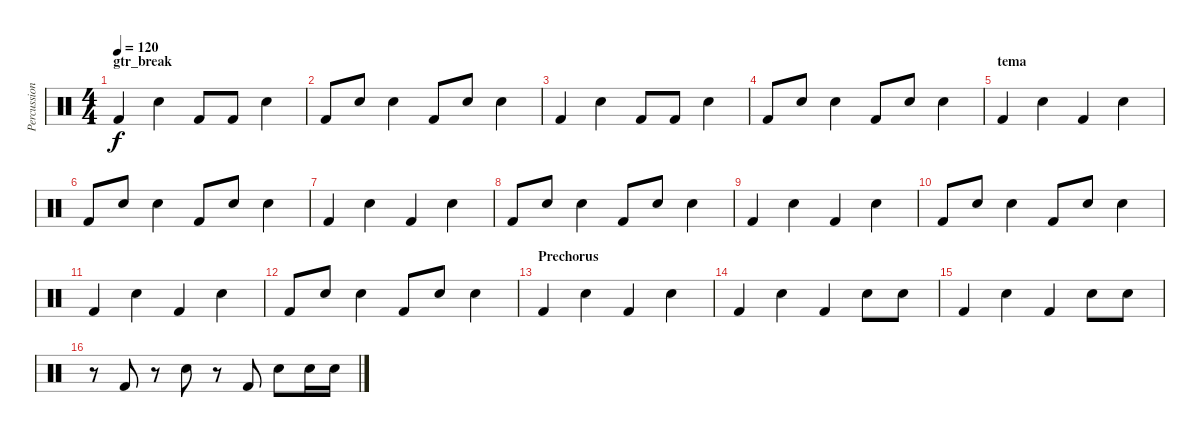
\track ("Percussion" "Percussion") {instrument percussion}
\staff {score}
\articulation defaults
\ts (4 4)
\section ("" "gtr_break")
\tempo 120
\clef neutral
\ks c "Kick (hit) 2".4{dy f} "Snare (hit) 2".4 "Kick (hit) 2".8 "Kick (hit) 2".8 "Snare (hit) 2".4
|
"Kick (hit) 2".8 "Snare (hit) 2".8 "Snare (hit) 2".4 "Kick (hit) 2".8 "Snare (hit) 2".8 "Snare (hit) 2".4 |
"Kick (hit) 2".4 "Snare (hit) 2".4 "Kick (hit) 2".8 "Kick (hit) 2".8 "Snare (hit) 2".4 |
"Kick (hit) 2".8 "Snare (hit) 2".8 "Snare (hit) 2".4 "Kick (hit) 2".8 "Snare (hit) 2".8 "Snare (hit) 2".4 |
\section ("" "tema")
"Kick (hit) 2".4 "Snare (hit) 2".4 "Kick (hit) 2".4 "Snare (hit) 2".4 |
"Kick (hit) 2".8 "Snare (hit) 2".8 "Snare (hit) 2".4 "Kick (hit) 2".8 "Snare (hit) 2".8 "Snare (hit) 2".4 |
"Kick (hit) 2".4 "Snare (hit) 2".4 "Kick (hit) 2".4 "Snare (hit) 2".4 |
"Kick (hit) 2".8 "Snare (hit) 2".8 "Snare (hit) 2".4 "Kick (hit) 2".8 "Snare (hit) 2".8 "Snare (hit) 2".4 |
"Kick (hit) 2".4 "Snare (hit) 2".4 "Kick (hit) 2".4 "Snare (hit) 2".4 |
"Kick (hit) 2".8 "Snare (hit) 2".8 "Snare (hit) 2".4 "Kick (hit) 2".8 "Snare (hit) 2".8 "Snare (hit) 2".4 |
"Kick (hit) 2".4 "Snare (hit) 2".4 "Kick (hit) 2".4 "Snare (hit) 2".4 |
"Kick (hit) 2".8 "Snare (hit) 2".8 "Snare (hit) 2".4 "Kick (hit) 2".8 "Snare (hit) 2".8 "Snare (hit) 2".4 |
\section ("" "Prechorus")
"Kick (hit) 2".4 "Snare (hit) 2".4 "Kick (hit) 2".4 "Snare (hit) 2".4 |
"Kick (hit) 2".4 "Snare (hit) 2".4 "Kick (hit) 2".4 "Snare (hit) 2".8 "Snare (hit) 2".8 |
"Kick (hit) 2".4 "Snare (hit) 2".4 "Kick (hit) 2".4 "Snare (hit) 2".8 "Snare (hit) 2".8 |
r.8 "Kick (hit) 2".8 r.8 "Snare (hit) 2".8 r.8 "Kick (hit) 2".8 "Snare (hit) 2".8 "Snare (hit) 2".16 "Snare (hit) 2".16
